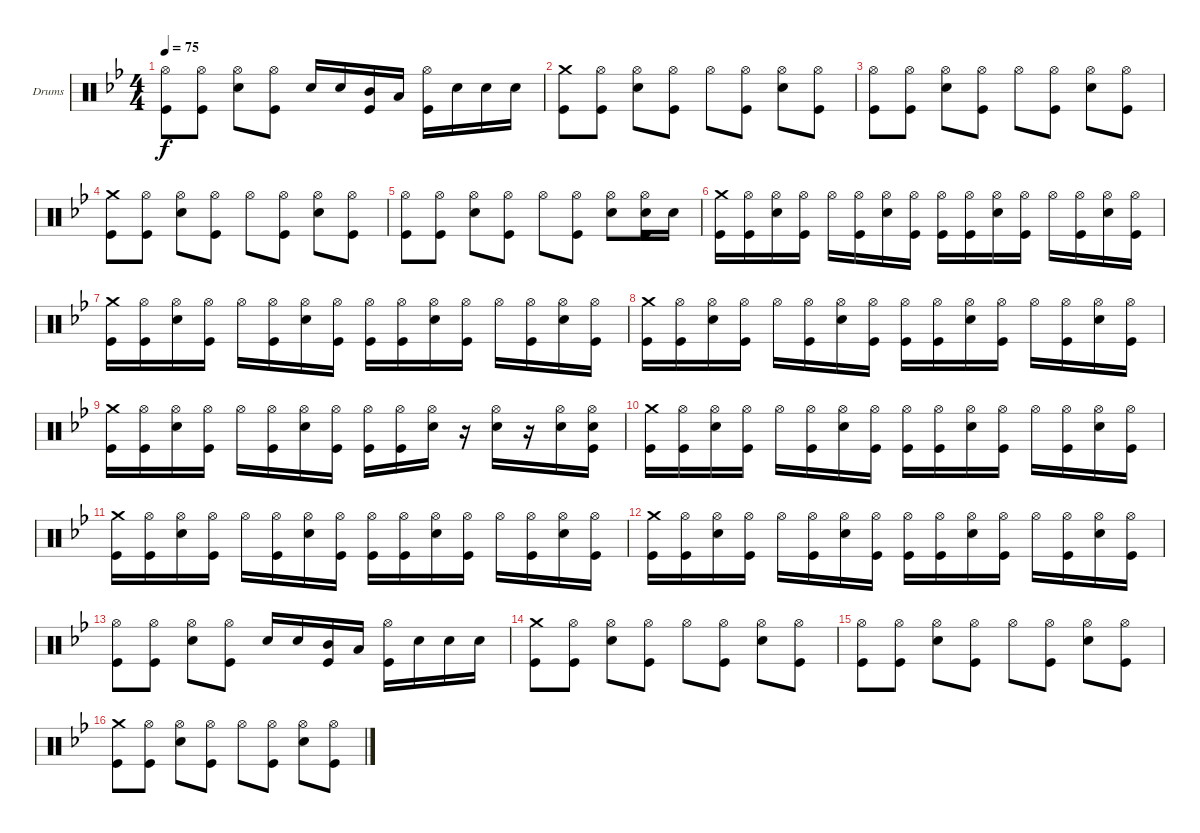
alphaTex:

\bracketExtendMode groupsimilarinstruments
\firstSystemTrackNameOrientation horizontal
\otherSystemsTrackNameOrientation horizontal
\track ("Drumkit" "Drums") {instrument percussion}
\staff {score}
\articulation defaults
\ts (4 4)
\tempo 75
\clef neutral
\ks bb
("Hi-Hat (open)" "Kick (hit)").8{dy f} ("Hi-Hat (open)" "Kick (hit)").8 ("Hi-Hat (open)" "Snare (hit) 2").8 ("Hi-Hat (open)" "Kick (hit)").8 "Snare (hit) 2".16 "Snare (hit) 2".16 ("Mid Tom (hit)" "Kick (hit)").16 "Low Tom (hit)".16 ("Hi-Hat (open)" "Kick (hit)").16 "Snare (hit) 2".16 "Snare (hit) 2".16 "Snare (hit) 2".16 |
("Crash medium (hit)" "Kick (hit)").8 ("Hi-Hat (open)" "Kick (hit)").8 ("Hi-Hat (open)" "Snare (hit) 2").8 ("Hi-Hat (open)" "Kick (hit)").8 "Hi-Hat (open)".8 ("Hi-Hat (open)" "Kick (hit)").8 ("Hi-Hat (open)" "Snare (hit) 2").8 ("Hi-Hat (open)" "Kick (hit)").8 |
("Hi-Hat (open)" "Kick (hit)").8 ("Hi-Hat (open)" "Kick (hit)").8 ("Hi-Hat (open)" "Snare (hit) 2").8 ("Hi-Hat (open)" "Kick (hit)").8 "Hi-Hat (open)".8 ("Hi-Hat (open)" "Kick (hit)").8 ("Hi-Hat (open)" "Snare (hit) 2").8 ("Hi-Hat (open)" "Kick (hit)").8 |
("Crash medium (hit)" "Kick (hit)").8 ("Hi-Hat (open)" "Kick (hit)").8 ("Hi-Hat (open)" "Snare (hit) 2").8 ("Hi-Hat (open)" "Kick (hit)").8 "Hi-Hat (open)".8 ("Hi-Hat (open)" "Kick (hit)").8 ("Hi-Hat (open)" "Snare (hit) 2").8 ("Hi-Hat (open)" "Kick (hit)").8 |
("Hi-Hat (open)" "Kick (hit)").8 ("Hi-Hat (open)" "Kick (hit)").8 ("Hi-Hat (open)" "Snare (hit) 2").8 ("Hi-Hat (open)" "Kick (hit)").8 "Hi-Hat (open)".8 ("Hi-Hat (open)" "Kick (hit)").8 ("Hi-Hat (open)" "Snare (hit) 2").8 ("Hi-Hat (open)" "Snare (hit) 2" "Kick (hit)").16 "Snare (hit) 2".16 |
("Crash medium (hit)" "Kick (hit)").16 ("Hi-Hat (open)" "Kick (hit)").16 ("Hi-Hat (open)" "Snare (hit) 2").16 ("Hi-Hat (open)" "Kick (hit)").16 "Hi-Hat (open)".16 ("Hi-Hat (open)" "Kick (hit)").16 ("Hi-Hat (open)" "Snare (hit) 2").16 ("Hi-Hat (open)" "Kick (hit)").16 ("Hi-Hat (open)" "Kick (hit)").16 ("Hi-Hat (open)" "Kick (hit)").16 ("Hi-Hat (open)" "Snare (hit) 2").16 ("Hi-Hat (open)" "Kick (hit)").16 "Hi-Hat (open)".16 ("Hi-Hat (open)" "Kick (hit)").16 ("Hi-Hat (open)" "Snare (hit) 2").16 ("Hi-Hat (open)" "Kick (hit)").16 |
("Crash medium (hit)" "Kick (hit)").16 ("Hi-Hat (open)" "Kick (hit)").16 ("Hi-Hat (open)" "Snare (hit) 2").16 ("Hi-Hat (open)" "Kick (hit)").16 "Hi-Hat (open)".16 ("Hi-Hat (open)" "Kick (hit)").16 ("Hi-Hat (open)" "Snare (hit) 2").16 ("Hi-Hat (open)" "Kick (hit)").16 ("Hi-Hat (open)" "Kick (hit)").16 ("Hi-Hat (open)" "Kick (hit)").16 ("Hi-Hat (open)" "Snare (hit) 2").16 ("Hi-Hat (open)" "Kick (hit)").16 "Hi-Hat (open)".16 ("Hi-Hat (open)" "Kick (hit)").16 ("Hi-Hat (open)" "Snare (hit) 2").16 ("Hi-Hat (open)" "Kick (hit)").16 |
("Crash medium (hit)" "Kick (hit)").16 ("Hi-Hat (open)" "Kick (hit)").16 ("Hi-Hat (open)" "Snare (hit) 2").16 ("Hi-Hat (open)" "Kick (hit)").16 "Hi-Hat (open)".16 ("Hi-Hat (open)" "Kick (hit)").16 ("Hi-Hat (open)" "Snare (hit) 2").16 ("Hi-Hat (open)" "Kick (hit)").16 ("Hi-Hat (open)" "Kick (hit)").16 ("Hi-Hat (open)" "Kick (hit)").16 ("Hi-Hat (open)" "Snare (hit) 2").16 ("Hi-Hat (open)" "Kick (hit)").16 "Hi-Hat (open)".16 ("Hi-Hat (open)" "Kick (hit)").16 ("Hi-Hat (open)" "Snare (hit) 2").16 ("Hi-Hat (open)" "Kick (hit)").16 |
("Crash medium (hit)" "Kick (hit)").16 ("Hi-Hat (open)" "Kick (hit)").16 ("Hi-Hat (open)" "Snare (hit) 2").16 ("Hi-Hat (open)" "Kick (hit)").16 "Hi-Hat (open)".16 ("Hi-Hat (open)" "Kick (hit)").16 ("Hi-Hat (open)" "Snare (hit) 2").16 ("Hi-Hat (open)" "Kick (hit)").16 ("Hi-Hat (open)" "Kick (hit)").16 ("Hi-Hat (open)" "Kick (hit)").16 ("Hi-Hat (open)" "Snare (hit) 2").16 r.16 ("Hi-Hat (open)" "Snare (hit) 2").16 r.16 ("Hi-Hat (open)" "Snare (hit) 2").16 ("Hi-Hat (open)" "Snare (hit) 2" "Kick (hit)").16 |
("Crash medium (hit)" "Kick (hit)").16 ("Hi-Hat (open)" "Kick (hit)").16 ("Hi-Hat (open)" "Snare (hit) 2").16 ("Hi-Hat (open)" "Kick (hit)").16 "Hi-Hat (open)".16 ("Hi-Hat (open)" "Kick (hit)").16 ("Hi-Hat (open)" "Snare (hit) 2").16 ("Hi-Hat (open)" "Kick (hit)").16 ("Hi-Hat (open)" "Kick (hit)").16 ("Hi-Hat (open)" "Kick (hit)").16 ("Hi-Hat (open)" "Snare (hit) 2").16 ("Hi-Hat (open)" "Kick (hit)").16 "Hi-Hat (open)".16 ("Hi-Hat (open)" "Kick (hit)").16 ("Hi-Hat (open)" "Snare (hit) 2").16 ("Hi-Hat (open)" "Kick (hit)").16 |
("Crash medium (hit)" "Kick (hit)").16 ("Hi-Hat (open)" "Kick (hit)").16 ("Hi-Hat (open)" "Snare (hit) 2").16 ("Hi-Hat (open)" "Kick (hit)").16 "Hi-Hat (open)".16 ("Hi-Hat (open)" "Kick (hit)").16 ("Hi-Hat (open)" "Snare (hit) 2").16 ("Hi-Hat (open)" "Kick (hit)").16 ("Hi-Hat (open)" "Kick (hit)").16 ("Hi-Hat (open)" "Kick (hit)").16 ("Hi-Hat (open)" "Snare (hit) 2").16 ("Hi-Hat (open)" "Kick (hit)").16 "Hi-Hat (open)".16 ("Hi-Hat (open)" "Kick (hit)").16 ("Hi-Hat (open)" "Snare (hit) 2").16 ("Hi-Hat (open)" "Kick (hit)").16 |
("Crash medium (hit)" "Kick (hit)").16 ("Hi-Hat (open)" "Kick (hit)").16 ("Hi-Hat (open)" "Snare (hit) 2").16 ("Hi-Hat (open)" "Kick (hit)").16 "Hi-Hat (open)".16 ("Hi-Hat (open)" "Kick (hit)").16 ("Hi-Hat (open)" "Snare (hit) 2").16 ("Hi-Hat (open)" "Kick (hit)").16 ("Hi-Hat (open)" "Kick (hit)").16 ("Hi-Hat (open)" "Kick (hit)").16 ("Hi-Hat (open)" "Snare (hit) 2").16 ("Hi-Hat (open)" "Kick (hit)").16 "Hi-Hat (open)".16 ("Hi-Hat (open)" "Kick (hit)").16 ("Hi-Hat (open)" "Snare (hit) 2").16 ("Hi-Hat (open)" "Kick (hit)").16 |
("Hi-Hat (open)" "Kick (hit)").8 ("Hi-Hat (open)" "Kick (hit)").8 ("Hi-Hat (open)" "Snare (hit) 2").8 ("Hi-Hat (open)" "Kick (hit)").8 "Snare (hit) 2".16 "Snare (hit) 2".16 ("Mid Tom (hit)" "Kick (hit)").16 "Low Tom (hit)".16 ("Hi-Hat (open)" "Kick (hit)").16 "Snare (hit) 2".16 "Snare (hit) 2".16 "Snare (hit) 2".16 |
("Crash medium (hit)" "Kick (hit)").8 ("Hi-Hat (open)" "Kick (hit)").8 ("Hi-Hat (open)" "Snare (hit) 2").8 ("Hi-Hat (open)" "Kick (hit)").8 "Hi-Hat (open)".8 ("Hi-Hat (open)" "Kick (hit)").8 ("Hi-Hat (open)" "Snare (hit) 2").8 ("Hi-Hat (open)" "Kick (hit)").8 |
("Hi-Hat (open)" "Kick (hit)").8 ("Hi-Hat (open)" "Kick (hit)").8 ("Hi-Hat (open)" "Snare (hit) 2").8 ("Hi-Hat (open)" "Kick (hit)").8 "Hi-Hat (open)".8 ("Hi-Hat (open)" "Kick (hit)").8 ("Hi-Hat (open)" "Snare (hit) 2").8 ("Hi-Hat (open)" "Kick (hit)").8 |
("Crash medium (hit)" "Kick (hit)").8 ("Hi-Hat (open)" "Kick (hit)").8 ("Hi-Hat (open)" "Snare (hit) 2").8 ("Hi-Hat (open)" "Kick (hit)").8 "Hi-Hat (open)".8 ("Hi-Hat (open)" "Kick (hit)").8 ("Hi-Hat (open)" "Snare (hit) 2").8 ("Hi-Hat (open)" "Kick (hit)").8
